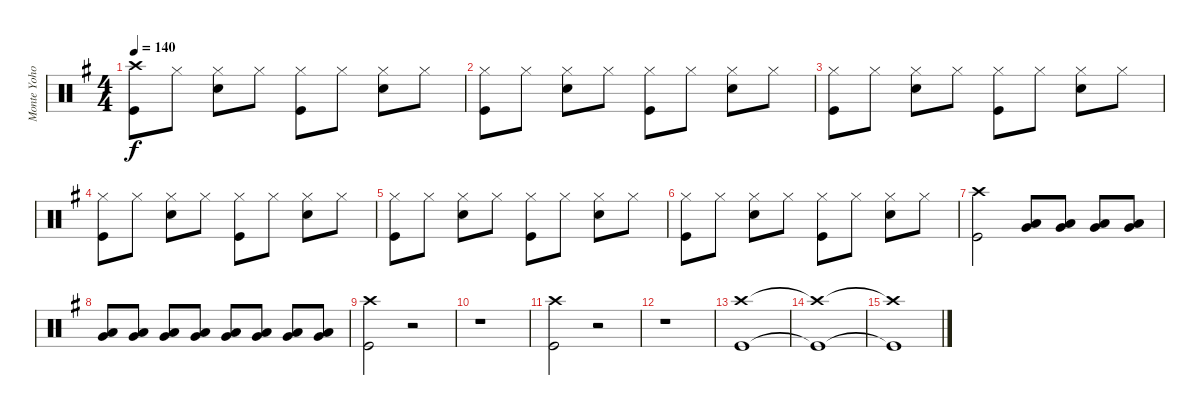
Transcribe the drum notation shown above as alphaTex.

\track ("Monte Yoho Drums" "Monte Yoho") {instrument percussion}
\staff {score}
\articulation defaults
\ts (4 4)
\tempo 140
\clef neutral
\ks g
("Crash high (hit)" "Kick (hit)").8{dy f} "Hi-Hat (closed)".8 ("Hi-Hat (closed)" "Snare (hit) 2").8 "Hi-Hat (closed)".8 ("Hi-Hat (closed)" "Kick (hit)").8 "Hi-Hat (closed)".8 ("Hi-Hat (closed)" "Snare (hit) 2").8 "Hi-Hat (closed)".8 |
("Hi-Hat (closed)" "Kick (hit)").8 "Hi-Hat (closed)".8 ("Hi-Hat (closed)" "Snare (hit) 2").8 "Hi-Hat (closed)".8 ("Hi-Hat (closed)" "Kick (hit)").8 "Hi-Hat (closed)".8 ("Hi-Hat (closed)" "Snare (hit) 2").8 "Hi-Hat (closed)".8 |
("Hi-Hat (closed)" "Kick (hit)").8 "Hi-Hat (closed)".8 ("Hi-Hat (closed)" "Snare (hit) 2").8 "Hi-Hat (closed)".8 ("Hi-Hat (closed)" "Kick (hit)").8 "Hi-Hat (closed)".8 ("Hi-Hat (closed)" "Snare (hit) 2").8 "Hi-Hat (closed)".8 |
("Hi-Hat (closed)" "Kick (hit)").8 "Hi-Hat (closed)".8 ("Hi-Hat (closed)" "Snare (hit) 2").8 "Hi-Hat (closed)".8 ("Hi-Hat (closed)" "Kick (hit)").8 "Hi-Hat (closed)".8 ("Hi-Hat (closed)" "Snare (hit) 2").8 "Hi-Hat (closed)".8 |
("Hi-Hat (closed)" "Kick (hit)").8 "Hi-Hat (closed)".8 ("Hi-Hat (closed)" "Snare (hit) 2").8 "Hi-Hat (closed)".8 ("Hi-Hat (closed)" "Kick (hit)").8 "Hi-Hat (closed)".8 ("Hi-Hat (closed)" "Snare (hit) 2").8 "Hi-Hat (closed)".8 |
("Hi-Hat (closed)" "Kick (hit)").8 "Hi-Hat (closed)".8 ("Hi-Hat (closed)" "Snare (hit) 2").8 "Hi-Hat (closed)".8 ("Hi-Hat (closed)" "Kick (hit)").8 "Hi-Hat (closed)".8 ("Hi-Hat (closed)" "Snare (hit) 2").8 "Hi-Hat (closed)".8 |
("Crash high (hit)" "Kick (hit)").2 ("Low Tom (hit)" "Very Low Tom (hit)").8 ("Low Tom (hit)" "Very Low Tom (hit)").8 ("Low Tom (hit)" "Very Low Tom (hit)").8 ("Low Tom (hit)" "Very Low Tom (hit)").8 |
("Low Tom (hit)" "Very Low Tom (hit)").8 ("Low Tom (hit)" "Very Low Tom (hit)").8 ("Low Tom (hit)" "Very Low Tom (hit)").8 ("Low Tom (hit)" "Very Low Tom (hit)").8 ("Low Tom (hit)" "Very Low Tom (hit)").8 ("Low Tom (hit)" "Very Low Tom (hit)").8 ("Low Tom (hit)" "Very Low Tom (hit)").8 ("Low Tom (hit)" "Very Low Tom (hit)").8 |
("Crash high (hit)" "Kick (hit)").2 r.2 |
r.1 |
("Crash high (hit)" "Kick (hit)").2 r.2 |
r.1 |
("Crash high (hit)" "Kick (hit)").1{volume 0} |
("Crash high (hit)"{t} "Kick (hit)"{t}).1 |
("Crash high (hit)"{t} "Kick (hit)"{t}).1
